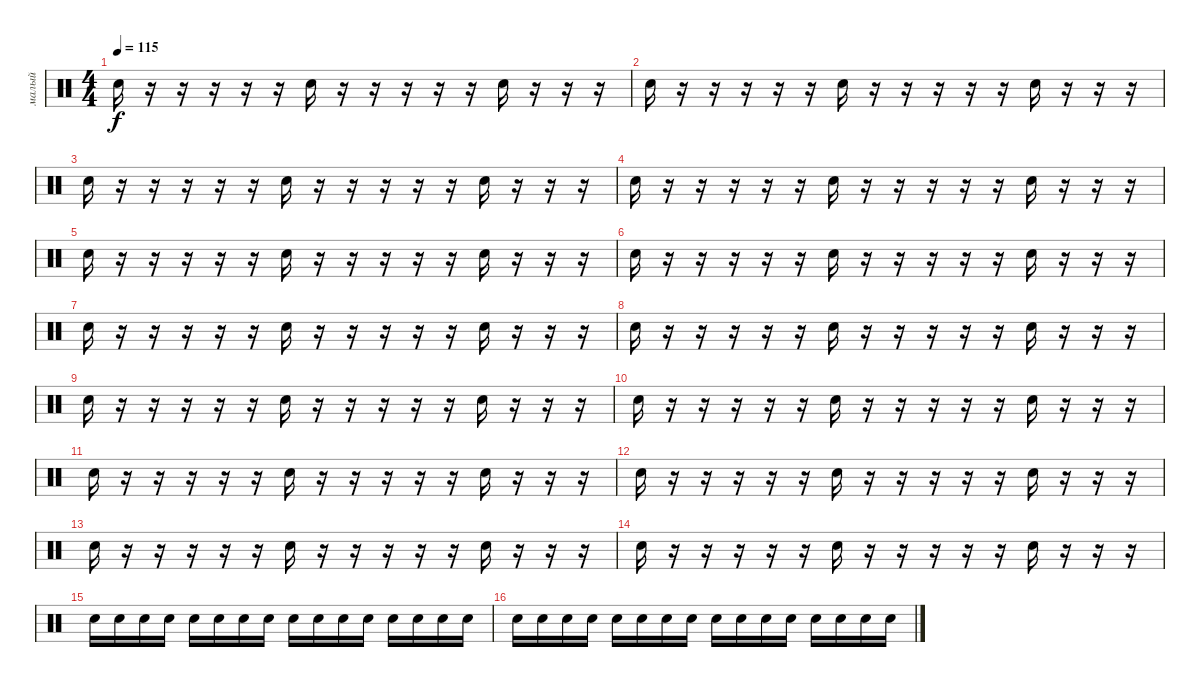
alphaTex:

\track ("малый" "малый") {mute instrument percussion}
\staff {score}
\articulation defaults
\ts (4 4)
\tempo 115
\clef neutral
\ks c "Electric Snare (hit)".16{dy f}
r.16 r.16 r.16 r.16 r.16 "Electric Snare (hit)".16 r.16 r.16 r.16 r.16 r.16 "Electric Snare (hit)".16 r.16 r.16 r.16 |
"Electric Snare (hit)".16 r.16 r.16 r.16 r.16 r.16 "Electric Snare (hit)".16 r.16 r.16 r.16 r.16 r.16 "Electric Snare (hit)".16 r.16 r.16 r.16 |
"Electric Snare (hit)".16 r.16 r.16 r.16 r.16 r.16 "Electric Snare (hit)".16 r.16 r.16 r.16 r.16 r.16 "Electric Snare (hit)".16 r.16 r.16 r.16 |
"Electric Snare (hit)".16 r.16 r.16 r.16 r.16 r.16 "Electric Snare (hit)".16 r.16 r.16 r.16 r.16 r.16 "Electric Snare (hit)".16 r.16 r.16 r.16 |
"Electric Snare (hit)".16 r.16 r.16 r.16 r.16 r.16 "Electric Snare (hit)".16 r.16 r.16 r.16 r.16 r.16 "Electric Snare (hit)".16 r.16 r.16 r.16 |
"Electric Snare (hit)".16 r.16 r.16 r.16 r.16 r.16 "Electric Snare (hit)".16 r.16 r.16 r.16 r.16 r.16 "Electric Snare (hit)".16 r.16 r.16 r.16 |
"Electric Snare (hit)".16 r.16 r.16 r.16 r.16 r.16 "Electric Snare (hit)".16 r.16 r.16 r.16 r.16 r.16 "Electric Snare (hit)".16 r.16 r.16 r.16 |
"Electric Snare (hit)".16 r.16 r.16 r.16 r.16 r.16 "Electric Snare (hit)".16 r.16 r.16 r.16 r.16 r.16 "Electric Snare (hit)".16 r.16 r.16 r.16 |
"Electric Snare (hit)".16 r.16 r.16 r.16 r.16 r.16 "Electric Snare (hit)".16 r.16 r.16 r.16 r.16 r.16 "Electric Snare (hit)".16 r.16 r.16 r.16 |
"Electric Snare (hit)".16 r.16 r.16 r.16 r.16 r.16 "Electric Snare (hit)".16 r.16 r.16 r.16 r.16 r.16 "Electric Snare (hit)".16 r.16 r.16 r.16 |
"Electric Snare (hit)".16 r.16 r.16 r.16 r.16 r.16 "Electric Snare (hit)".16 r.16 r.16 r.16 r.16 r.16 "Electric Snare (hit)".16 r.16 r.16 r.16 |
"Electric Snare (hit)".16 r.16 r.16 r.16 r.16 r.16 "Electric Snare (hit)".16 r.16 r.16 r.16 r.16 r.16 "Electric Snare (hit)".16 r.16 r.16 r.16 |
"Electric Snare (hit)".16 r.16 r.16 r.16 r.16 r.16 "Electric Snare (hit)".16 r.16 r.16 r.16 r.16 r.16 "Electric Snare (hit)".16 r.16 r.16 r.16 |
"Electric Snare (hit)".16 r.16 r.16 r.16 r.16 r.16 "Electric Snare (hit)".16 r.16 r.16 r.16 r.16 r.16 "Electric Snare (hit)".16 r.16 r.16 r.16 |
"Electric Snare (hit)".16 "Electric Snare (hit)".16 "Electric Snare (hit)".16 "Electric Snare (hit)".16 "Electric Snare (hit)".16 "Electric Snare (hit)".16 "Electric Snare (hit)".16 "Electric Snare (hit)".16 "Electric Snare (hit)".16 "Electric Snare (hit)".16 "Electric Snare (hit)".16 "Electric Snare (hit)".16 "Electric Snare (hit)".16 "Electric Snare (hit)".16 "Electric Snare (hit)".16 "Electric Snare (hit)".16 |
"Electric Snare (hit)".16 "Electric Snare (hit)".16 "Electric Snare (hit)".16 "Electric Snare (hit)".16 "Electric Snare (hit)".16 "Electric Snare (hit)".16 "Electric Snare (hit)".16 "Electric Snare (hit)".16 "Electric Snare (hit)".16 "Electric Snare (hit)".16 "Electric Snare (hit)".16 "Electric Snare (hit)".16 "Electric Snare (hit)".16 "Electric Snare (hit)".16 "Electric Snare (hit)".16 "Electric Snare (hit)".16
